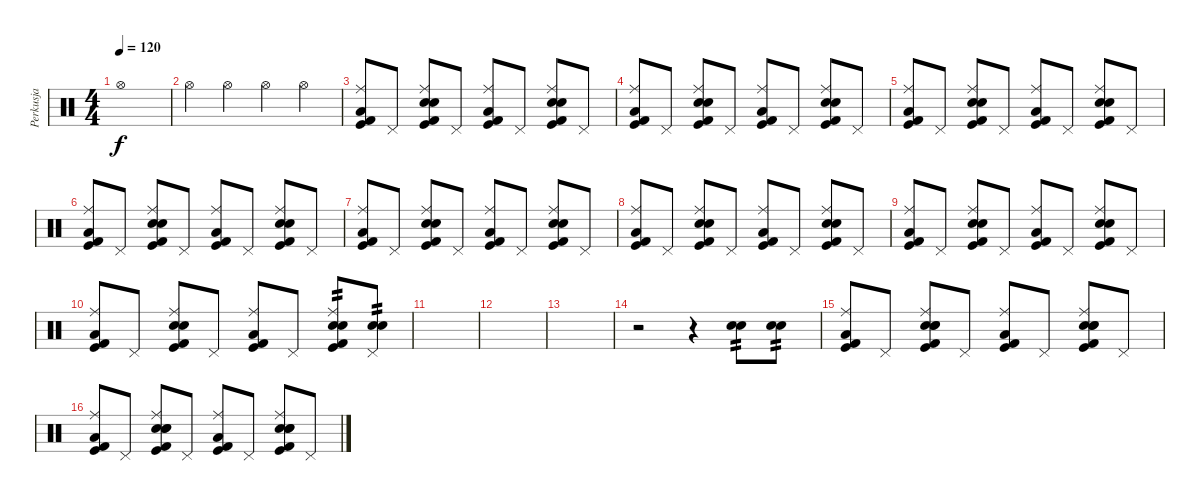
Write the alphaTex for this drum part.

\track ("Perkusja" "Perkusja") {instrument percussion}
\staff {score}
\articulation defaults
\ts (4 4)
\tempo 120
\clef neutral
\ks c "Hi-Hat (open)".1{dy f}
|
"Hi-Hat (open)".4 "Hi-Hat (open)".4 "Hi-Hat (open)".4 "Hi-Hat (open)".4 |
("Kick (hit) 2" "Kick (hit)" "Low Floor Tom (hit)" "Ride (middle)").8 "Pedal Hi-Hat (hit)".8 ("Kick (hit) 2" "Kick (hit)" "Snare (hit) 2" "Electric Snare (hit)" "Ride (middle)").8 "Pedal Hi-Hat (hit)".8 ("Kick (hit) 2" "Kick (hit)" "Low Floor Tom (hit)" "Ride (middle)").8 "Pedal Hi-Hat (hit)".8 ("Kick (hit) 2" "Kick (hit)" "Snare (hit) 2" "Electric Snare (hit)" "Ride (middle)").8 "Pedal Hi-Hat (hit)".8 |
("Kick (hit) 2" "Kick (hit)" "Low Floor Tom (hit)" "Ride (middle)").8 "Pedal Hi-Hat (hit)".8 ("Kick (hit) 2" "Kick (hit)" "Snare (hit) 2" "Electric Snare (hit)" "Ride (middle)").8 "Pedal Hi-Hat (hit)".8 ("Kick (hit) 2" "Kick (hit)" "Low Floor Tom (hit)" "Ride (middle)").8 "Pedal Hi-Hat (hit)".8 ("Kick (hit) 2" "Kick (hit)" "Snare (hit) 2" "Electric Snare (hit)" "Ride (middle)").8 "Pedal Hi-Hat (hit)".8 |
("Kick (hit) 2" "Kick (hit)" "Low Floor Tom (hit)" "Ride (middle)").8 "Pedal Hi-Hat (hit)".8 ("Kick (hit) 2" "Kick (hit)" "Snare (hit) 2" "Electric Snare (hit)" "Ride (middle)").8 "Pedal Hi-Hat (hit)".8 ("Kick (hit) 2" "Kick (hit)" "Low Floor Tom (hit)" "Ride (middle)").8 "Pedal Hi-Hat (hit)".8 ("Kick (hit) 2" "Kick (hit)" "Snare (hit) 2" "Electric Snare (hit)" "Ride (middle)").8 "Pedal Hi-Hat (hit)".8 |
("Kick (hit) 2" "Kick (hit)" "Low Floor Tom (hit)" "Ride (middle)").8 "Pedal Hi-Hat (hit)".8 ("Kick (hit) 2" "Kick (hit)" "Snare (hit) 2" "Electric Snare (hit)" "Ride (middle)").8 "Pedal Hi-Hat (hit)".8 ("Kick (hit) 2" "Kick (hit)" "Low Floor Tom (hit)" "Ride (middle)").8 "Pedal Hi-Hat (hit)".8 ("Kick (hit) 2" "Kick (hit)" "Snare (hit) 2" "Electric Snare (hit)" "Ride (middle)").8 "Pedal Hi-Hat (hit)".8 |
("Kick (hit) 2" "Kick (hit)" "Low Floor Tom (hit)" "Ride (middle)").8 "Pedal Hi-Hat (hit)".8 ("Kick (hit) 2" "Kick (hit)" "Snare (hit) 2" "Electric Snare (hit)" "Ride (middle)").8 "Pedal Hi-Hat (hit)".8 ("Kick (hit) 2" "Kick (hit)" "Low Floor Tom (hit)" "Ride (middle)").8 "Pedal Hi-Hat (hit)".8 ("Kick (hit) 2" "Kick (hit)" "Snare (hit) 2" "Electric Snare (hit)" "Ride (middle)").8 "Pedal Hi-Hat (hit)".8 |
("Kick (hit) 2" "Kick (hit)" "Low Floor Tom (hit)" "Ride (middle)").8 "Pedal Hi-Hat (hit)".8 ("Kick (hit) 2" "Kick (hit)" "Snare (hit) 2" "Electric Snare (hit)" "Ride (middle)").8 "Pedal Hi-Hat (hit)".8 ("Kick (hit) 2" "Kick (hit)" "Low Floor Tom (hit)" "Ride (middle)").8 "Pedal Hi-Hat (hit)".8 ("Kick (hit) 2" "Kick (hit)" "Snare (hit) 2" "Electric Snare (hit)" "Ride (middle)").8 "Pedal Hi-Hat (hit)".8 |
("Kick (hit) 2" "Kick (hit)" "Low Floor Tom (hit)" "Ride (middle)").8 "Pedal Hi-Hat (hit)".8 ("Kick (hit) 2" "Kick (hit)" "Snare (hit) 2" "Electric Snare (hit)" "Ride (middle)").8 "Pedal Hi-Hat (hit)".8 ("Kick (hit) 2" "Kick (hit)" "Low Floor Tom (hit)" "Ride (middle)").8 "Pedal Hi-Hat (hit)".8 ("Kick (hit) 2" "Kick (hit)" "Snare (hit) 2" "Electric Snare (hit)" "Ride (middle)").8 "Pedal Hi-Hat (hit)".8 |
("Kick (hit) 2" "Kick (hit)" "Low Floor Tom (hit)" "Ride (middle)").8 "Pedal Hi-Hat (hit)".8 ("Kick (hit) 2" "Kick (hit)" "Snare (hit) 2" "Electric Snare (hit)" "Ride (middle)").8 "Pedal Hi-Hat (hit)".8 ("Kick (hit) 2" "Kick (hit)" "Low Floor Tom (hit)" "Ride (middle)").8 "Pedal Hi-Hat (hit)".8 ("Kick (hit) 2" "Kick (hit)" "Snare (hit) 2" "Electric Snare (hit)" "Ride (middle)").8{tp 2} ("Pedal Hi-Hat (hit)" "Snare (hit) 2" "Electric Snare (hit)").8{tp 2} |
|
|
|
r.2 r.4 ("Electric Snare (hit)" "Snare (hit) 2").8{tp 2} ("Electric Snare (hit)" "Snare (hit) 2").8{tp 2} |
("Kick (hit) 2" "Kick (hit)" "Low Floor Tom (hit)" "Ride (middle)").8 "Pedal Hi-Hat (hit)".8 ("Kick (hit) 2" "Kick (hit)" "Snare (hit) 2" "Electric Snare (hit)" "Hand Clap (hit)" "Ride (middle)").8 "Pedal Hi-Hat (hit)".8 ("Kick (hit) 2" "Kick (hit)" "Low Floor Tom (hit)" "Ride (middle)").8 "Pedal Hi-Hat (hit)".8 ("Kick (hit) 2" "Kick (hit)" "Snare (hit) 2" "Electric Snare (hit)" "Hand Clap (hit)" "Ride (middle)").8 "Pedal Hi-Hat (hit)".8 |
("Kick (hit) 2" "Kick (hit)" "Low Floor Tom (hit)" "Ride (middle)").8 "Pedal Hi-Hat (hit)".8 ("Kick (hit) 2" "Kick (hit)" "Snare (hit) 2" "Electric Snare (hit)" "Hand Clap (hit)" "Ride (middle)").8 "Pedal Hi-Hat (hit)".8 ("Kick (hit) 2" "Kick (hit)" "Low Floor Tom (hit)" "Ride (middle)").8 "Pedal Hi-Hat (hit)".8 ("Kick (hit) 2" "Kick (hit)" "Snare (hit) 2" "Electric Snare (hit)" "Hand Clap (hit)" "Ride (middle)").8 "Pedal Hi-Hat (hit)".8
